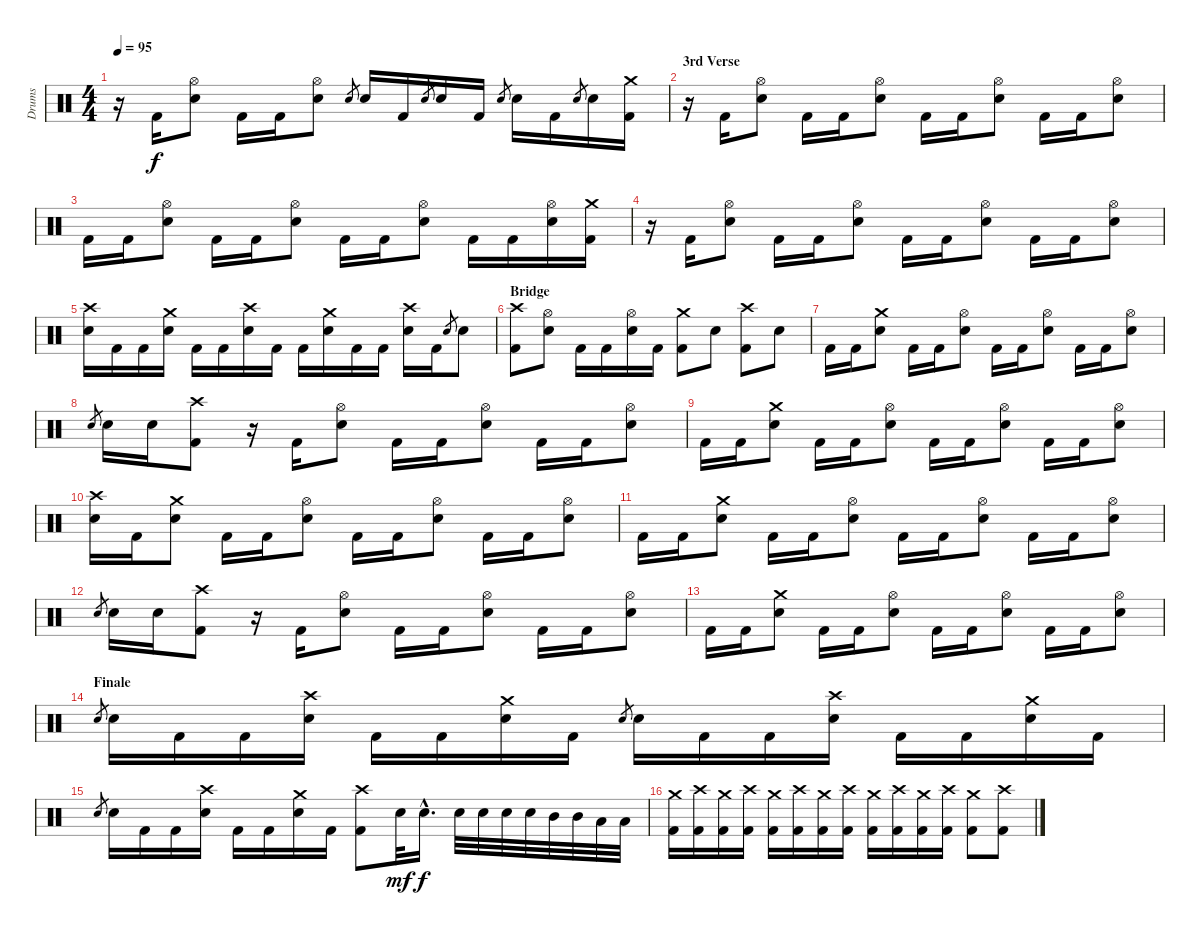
\track ("Drums" "Drums") {instrument percussion}
\staff {score}
\articulation defaults
\ts (4 4)
\tempo 95
\clef neutral
\ks c
r.16{dy f} "Kick (hit) 2".16 ("Hi-Hat (open)" "Snare (hit) 2").8 "Kick (hit) 2".16 "Kick (hit) 2".16 ("Hi-Hat (open)" "Snare (hit) 2").8 "Snare (hit) 2".8{gr} "Snare (hit) 2".16 "Kick (hit) 2".16 "Snare (hit) 2".8{gr} "Snare (hit) 2".16 "Kick (hit) 2".16 "Snare (hit) 2".8{gr} "Snare (hit) 2".16 "Kick (hit) 2".16 "Snare (hit) 2".8{gr} "Snare (hit) 2".16 ("Crash medium (hit)" "Kick (hit) 2").16 |
\section ("" "3rd Verse")
r.16 "Kick (hit) 2".16 ("Hi-Hat (open)" "Snare (hit) 2").8 "Kick (hit) 2".16 "Kick (hit) 2".16 ("Hi-Hat (open)" "Snare (hit) 2").8 "Kick (hit) 2".16 "Kick (hit) 2".16 ("Hi-Hat (open)" "Snare (hit) 2").8 "Kick (hit) 2".16 "Kick (hit) 2".16 ("Hi-Hat (open)" "Snare (hit) 2").8 |
"Kick (hit) 2".16 "Kick (hit) 2".16 ("Hi-Hat (open)" "Snare (hit) 2").8 "Kick (hit) 2".16 "Kick (hit) 2".16 ("Hi-Hat (open)" "Snare (hit) 2").8 "Kick (hit) 2".16 "Kick (hit) 2".16 ("Hi-Hat (open)" "Snare (hit) 2").8 "Kick (hit) 2".16 "Kick (hit) 2".16 ("Hi-Hat (open)" "Snare (hit) 2").16 ("Crash medium (hit)" "Kick (hit) 2").16 |
r.16 "Kick (hit) 2".16 ("Hi-Hat (open)" "Snare (hit) 2").8 "Kick (hit) 2".16 "Kick (hit) 2".16 ("Hi-Hat (open)" "Snare (hit) 2").8 "Kick (hit) 2".16 "Kick (hit) 2".16 ("Hi-Hat (open)" "Snare (hit) 2").8 "Kick (hit) 2".16 "Kick (hit) 2".16 ("Hi-Hat (open)" "Snare (hit) 2").8 |
("Crash high (hit)" "Snare (hit) 2").16 "Kick (hit) 2".16 "Kick (hit) 2".16 ("Crash medium (hit)" "Snare (hit) 2").16 "Kick (hit) 2".16 "Kick (hit) 2".16 ("Crash high (hit)" "Snare (hit) 2").16 "Kick (hit) 2".16 "Kick (hit) 2".16 ("Crash medium (hit)" "Snare (hit) 2").16 "Kick (hit) 2".16 "Kick (hit) 2".16 ("Crash high (hit)" "Snare (hit) 2").16 "Kick (hit) 2".16 "Snare (hit) 2".8{gr} "Snare (hit) 2".8 |
\section ("" "Bridge")
("Crash high (hit)" "Kick (hit) 2").8 ("Hi-Hat (open)" "Snare (hit) 2").8 "Kick (hit) 2".16 "Kick (hit) 2".16 ("Hi-Hat (open)" "Snare (hit) 2").16 "Kick (hit) 2".16 ("Crash medium (hit)" "Kick (hit) 2").8 "Snare (hit) 2".8 ("Crash high (hit)" "Kick (hit) 2").8 "Snare (hit) 2".8 |
"Kick (hit) 2".16 "Kick (hit) 2".16 ("Crash medium (hit)" "Snare (hit) 2").8 "Kick (hit) 2".16 "Kick (hit) 2".16 ("Hi-Hat (open)" "Snare (hit) 2").8 "Kick (hit) 2".16 "Kick (hit) 2".16 ("Hi-Hat (open)" "Snare (hit) 2").8 "Kick (hit) 2".16 "Kick (hit) 2".16 ("Hi-Hat (open)" "Snare (hit) 2").8 |
"Snare (hit) 2".8{gr} "Snare (hit) 2".16 "Snare (hit) 2".16 ("Crash high (hit)" "Kick (hit) 2").8 r.16 "Kick (hit) 2".16 ("Hi-Hat (open)" "Snare (hit) 2").8 "Kick (hit) 2".16 "Kick (hit) 2".16 ("Hi-Hat (open)" "Snare (hit) 2").8 "Kick (hit) 2".16 "Kick (hit) 2".16 ("Hi-Hat (open)" "Snare (hit) 2").8 |
"Kick (hit) 2".16 "Kick (hit) 2".16 ("Crash medium (hit)" "Snare (hit) 2").8 "Kick (hit) 2".16 "Kick (hit) 2".16 ("Hi-Hat (open)" "Snare (hit) 2").8 "Kick (hit) 2".16 "Kick (hit) 2".16 ("Hi-Hat (open)" "Snare (hit) 2").8 "Kick (hit) 2".16 "Kick (hit) 2".16 ("Hi-Hat (open)" "Snare (hit) 2").8 |
("Crash high (hit)" "Snare (hit) 2").16 "Kick (hit) 2".16 ("Crash medium (hit)" "Snare (hit) 2").8 "Kick (hit) 2".16 "Kick (hit) 2".16 ("Hi-Hat (open)" "Snare (hit) 2").8 "Kick (hit) 2".16 "Kick (hit) 2".16 ("Hi-Hat (open)" "Snare (hit) 2").8 "Kick (hit) 2".16 "Kick (hit) 2".16 ("Hi-Hat (open)" "Snare (hit) 2").8 |
"Kick (hit) 2".16 "Kick (hit) 2".16 ("Crash medium (hit)" "Snare (hit) 2").8 "Kick (hit) 2".16 "Kick (hit) 2".16 ("Hi-Hat (open)" "Snare (hit) 2").8 "Kick (hit) 2".16 "Kick (hit) 2".16 ("Hi-Hat (open)" "Snare (hit) 2").8 "Kick (hit) 2".16 "Kick (hit) 2".16 ("Hi-Hat (open)" "Snare (hit) 2").8 |
"Snare (hit) 2".8{gr} "Snare (hit) 2".16 "Snare (hit) 2".16 ("Crash high (hit)" "Kick (hit) 2").8 r.16 "Kick (hit) 2".16 ("Hi-Hat (open)" "Snare (hit) 2").8 "Kick (hit) 2".16 "Kick (hit) 2".16 ("Hi-Hat (open)" "Snare (hit) 2").8 "Kick (hit) 2".16 "Kick (hit) 2".16 ("Hi-Hat (open)" "Snare (hit) 2").8 |
"Kick (hit) 2".16 "Kick (hit) 2".16 ("Crash medium (hit)" "Snare (hit) 2").8 "Kick (hit) 2".16 "Kick (hit) 2".16 ("Hi-Hat (open)" "Snare (hit) 2").8 "Kick (hit) 2".16 "Kick (hit) 2".16 ("Hi-Hat (open)" "Snare (hit) 2").8 "Kick (hit) 2".16 "Kick (hit) 2".16 ("Hi-Hat (open)" "Snare (hit) 2").8 |
\section ("" "Finale")
"Snare (hit) 2".8{gr} "Snare (hit) 2".16 "Kick (hit) 2".16 "Kick (hit) 2".16 ("Crash high (hit)" "Snare (hit) 2").16 "Kick (hit) 2".16 "Kick (hit) 2".16 ("Crash medium (hit)" "Snare (hit) 2").16 "Kick (hit) 2".16 "Snare (hit) 2".8{gr} "Snare (hit) 2".16 "Kick (hit) 2".16 "Kick (hit) 2".16 ("Crash high (hit)" "Snare (hit) 2").16 "Kick (hit) 2".16 "Kick (hit) 2".16 ("Crash medium (hit)" "Snare (hit) 2").16 "Kick (hit) 2".16 |
"Snare (hit) 2".8{gr} "Snare (hit) 2".16 "Kick (hit) 2".16 "Kick (hit) 2".16 ("Crash high (hit)" "Snare (hit) 2").16 "Kick (hit) 2".16 "Kick (hit) 2".16 ("Crash medium (hit)" "Snare (hit) 2").16 "Kick (hit) 2".16 ("Crash high (hit)" "Kick (hit) 2").8 "Snare (hit) 2".32{dy mf} "Snare (hit) 2"{hac}.16{d dy f} "Snare (hit) 2".32 "Snare (hit) 2".32 "Snare (hit) 2".32 "Snare (hit) 2".32 "Mid Tom (hit)".32 "Mid Tom (hit)".32 "Low Tom (hit)".32 "Low Tom (hit)".32 |
("Crash medium (hit)" "Kick (hit) 2").16 ("Crash high (hit)" "Kick (hit) 2").16 ("Crash medium (hit)" "Kick (hit) 2").16 ("Crash high (hit)" "Kick (hit) 2").16 ("Crash medium (hit)" "Kick (hit) 2").16 ("Crash high (hit)" "Kick (hit) 2").16 ("Crash medium (hit)" "Kick (hit) 2").16 ("Crash high (hit)" "Kick (hit) 2").16 ("Crash medium (hit)" "Kick (hit) 2").16 ("Crash high (hit)" "Kick (hit) 2").16 ("Crash medium (hit)" "Kick (hit) 2").16 ("Crash high (hit)" "Kick (hit) 2").16 ("Crash medium (hit)" "Kick (hit) 2").8 ("Crash high (hit)" "Kick (hit) 2").8
